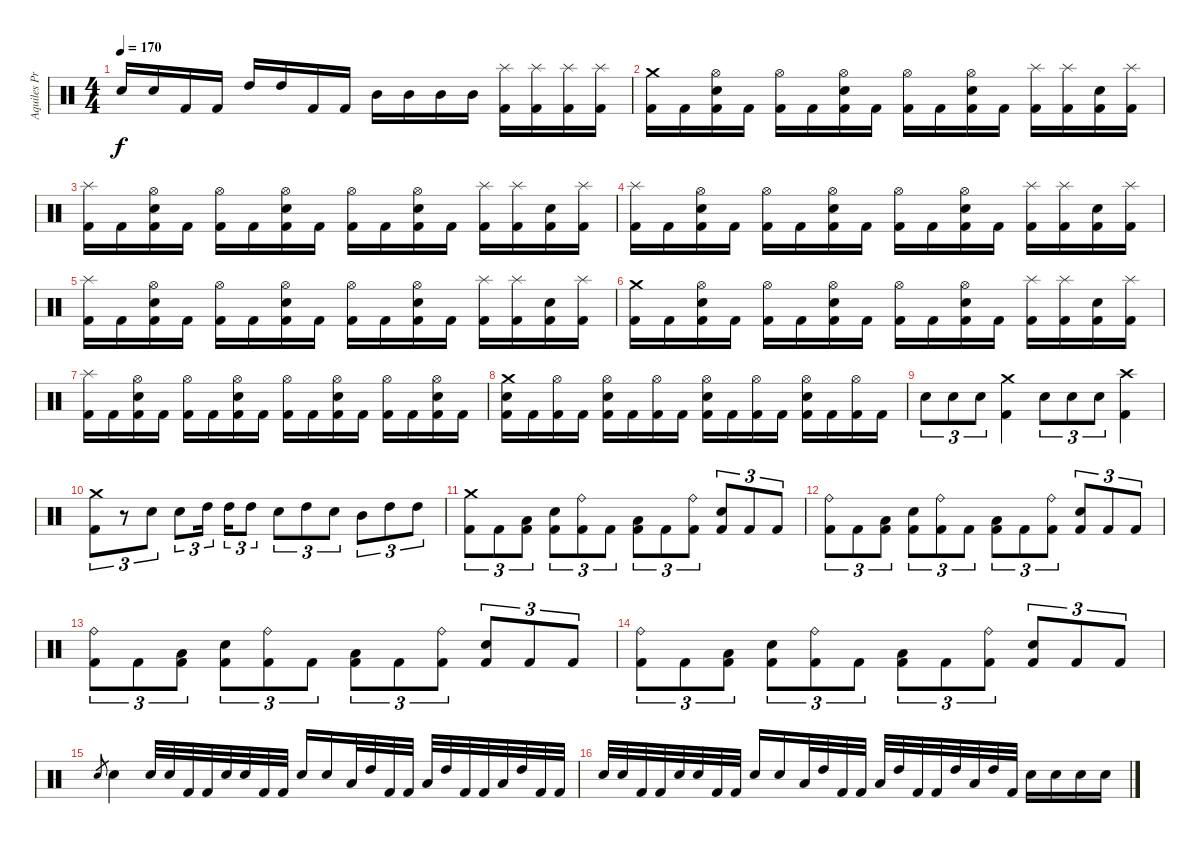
\track ("Aquiles Priester" "Aquiles Pr") {instrument percussion}
\staff {score}
\articulation defaults
\ts (4 4)
\tempo 170
\clef neutral
\ks c "Electric Snare (hit)".16{dy f} "Electric Snare (hit)".16 "Kick (hit) 2".16 "Kick (hit) 2".16 "High Tom (hit)".16 "High Tom (hit)".16 "Kick (hit) 2".16 "Kick (hit) 2".16 "Mid Tom (hit)".16 "Mid Tom (hit)".16 "Mid Tom (hit)".16 "Mid Tom (hit)".16
("Splash (hit)" "Kick (hit) 2").16 ("Splash (hit)" "Kick (hit) 2").16 ("Splash (hit)" "Kick (hit) 2").16 ("Splash (hit)" "Kick (hit) 2").16 |
("Crash medium (hit)" "Kick (hit) 2").16 "Kick (hit) 2".16 ("Electric Snare (hit)" "Hi-Hat (open)" "Kick (hit) 2").16 "Kick (hit) 2".16 ("Hi-Hat (open)" "Kick (hit) 2").16 "Kick (hit) 2".16 ("Electric Snare (hit)" "Hi-Hat (open)" "Kick (hit) 2").16 "Kick (hit) 2".16 ("Hi-Hat (open)" "Kick (hit) 2").16 "Kick (hit) 2".16 ("Electric Snare (hit)" "Hi-Hat (open)" "Kick (hit) 2").16 "Kick (hit) 2".16 ("Splash (hit)" "Kick (hit) 2").16 ("Splash (hit)" "Kick (hit) 2").16 ("Electric Snare (hit)" "Kick (hit) 2").16 ("Splash (hit)" "Kick (hit) 2").16 |
("Splash (hit)" "Kick (hit) 2").16 "Kick (hit) 2".16 ("Electric Snare (hit)" "Hi-Hat (open)" "Kick (hit) 2").16 "Kick (hit) 2".16 ("Hi-Hat (open)" "Kick (hit) 2").16 "Kick (hit) 2".16 ("Electric Snare (hit)" "Hi-Hat (open)" "Kick (hit) 2").16 "Kick (hit) 2".16 ("Hi-Hat (open)" "Kick (hit) 2").16 "Kick (hit) 2".16 ("Electric Snare (hit)" "Hi-Hat (open)" "Kick (hit) 2").16 "Kick (hit) 2".16 ("Splash (hit)" "Kick (hit) 2").16 ("Splash (hit)" "Kick (hit) 2").16 ("Electric Snare (hit)" "Kick (hit) 2").16 ("Splash (hit)" "Kick (hit) 2").16 |
("Splash (hit)" "Kick (hit) 2").16 "Kick (hit) 2".16 ("Electric Snare (hit)" "Hi-Hat (open)" "Kick (hit) 2").16 "Kick (hit) 2".16 ("Hi-Hat (open)" "Kick (hit) 2").16 "Kick (hit) 2".16 ("Electric Snare (hit)" "Hi-Hat (open)" "Kick (hit) 2").16 "Kick (hit) 2".16 ("Hi-Hat (open)" "Kick (hit) 2").16 "Kick (hit) 2".16 ("Electric Snare (hit)" "Hi-Hat (open)" "Kick (hit) 2").16 "Kick (hit) 2".16 ("Splash (hit)" "Kick (hit) 2").16 ("Splash (hit)" "Kick (hit) 2").16 ("Electric Snare (hit)" "Kick (hit) 2").16 ("Splash (hit)" "Kick (hit) 2").16 |
("Splash (hit)" "Kick (hit) 2").16 "Kick (hit) 2".16 ("Electric Snare (hit)" "Hi-Hat (open)" "Kick (hit) 2").16 "Kick (hit) 2".16 ("Hi-Hat (open)" "Kick (hit) 2").16 "Kick (hit) 2".16 ("Electric Snare (hit)" "Hi-Hat (open)" "Kick (hit) 2").16 "Kick (hit) 2".16 ("Hi-Hat (open)" "Kick (hit) 2").16 "Kick (hit) 2".16 ("Electric Snare (hit)" "Hi-Hat (open)" "Kick (hit) 2").16 "Kick (hit) 2".16 ("Splash (hit)" "Kick (hit) 2").16 ("Splash (hit)" "Kick (hit) 2").16 ("Electric Snare (hit)" "Kick (hit) 2").16 ("Splash (hit)" "Kick (hit) 2").16 |
("Crash medium (hit)" "Kick (hit) 2").16 "Kick (hit) 2".16 ("Electric Snare (hit)" "Hi-Hat (open)" "Kick (hit) 2").16 "Kick (hit) 2".16 ("Hi-Hat (open)" "Kick (hit) 2").16 "Kick (hit) 2".16 ("Electric Snare (hit)" "Hi-Hat (open)" "Kick (hit) 2").16 "Kick (hit) 2".16 ("Hi-Hat (open)" "Kick (hit) 2").16 "Kick (hit) 2".16 ("Electric Snare (hit)" "Hi-Hat (open)" "Kick (hit) 2").16 "Kick (hit) 2".16 ("Splash (hit)" "Kick (hit) 2").16 ("Splash (hit)" "Kick (hit) 2").16 ("Electric Snare (hit)" "Kick (hit) 2").16 ("Splash (hit)" "Kick (hit) 2").16 |
("Splash (hit)" "Kick (hit) 2").16 "Kick (hit) 2".16 ("Electric Snare (hit)" "Hi-Hat (open)" "Kick (hit) 2").16 "Kick (hit) 2".16 ("Hi-Hat (open)" "Kick (hit) 2").16 "Kick (hit) 2".16 ("Electric Snare (hit)" "Hi-Hat (open)" "Kick (hit) 2").16 "Kick (hit) 2".16 ("Hi-Hat (open)" "Kick (hit) 2").16 "Kick (hit) 2".16 ("Electric Snare (hit)" "Hi-Hat (open)" "Kick (hit) 2").16 "Kick (hit) 2".16 ("Hi-Hat (open)" "Kick (hit) 2").16 "Kick (hit) 2".16 ("Hi-Hat (open)" "Electric Snare (hit)" "Kick (hit) 2").16 "Kick (hit) 2".16 |
("Crash medium (hit)" "Electric Snare (hit)" "Kick (hit) 2").16 "Kick (hit) 2".16 ("Hi-Hat (open)" "Kick (hit) 2").16 "Kick (hit) 2".16 ("Hi-Hat (open)" "Electric Snare (hit)" "Kick (hit) 2").16 "Kick (hit) 2".16 ("Hi-Hat (open)" "Kick (hit) 2").16 "Kick (hit) 2".16 ("Hi-Hat (open)" "Electric Snare (hit)" "Kick (hit) 2").16 "Kick (hit) 2".16 ("Hi-Hat (open)" "Kick (hit) 2").16 "Kick (hit) 2".16 ("Hi-Hat (open)" "Electric Snare (hit)" "Kick (hit) 2").16 "Kick (hit) 2".16 ("Hi-Hat (open)" "Kick (hit) 2").16 "Kick (hit) 2".16 |
"Electric Snare (hit)".8{tu (3 2)} "Electric Snare (hit)".8{tu (3 2)} "Electric Snare (hit)".8{tu (3 2)} ("Crash medium (hit)" "Kick (hit) 2").4 "Electric Snare (hit)".8{tu (3 2)} "Electric Snare (hit)".8{tu (3 2)} "Electric Snare (hit)".8{tu (3 2)} ("Crash high (hit)" "Kick (hit) 2").4 |
("Kick (hit) 2" "Crash medium (hit)").8{tu (3 2)} r.8{tu (3 2)} "Electric Snare (hit)".8{tu (3 2)} "Electric Snare (hit)".8{tu (3 2)} "High Tom (hit)".16{tu (3 2)} "High Tom (hit)".16{tu (3 2)} "High Tom (hit)".8{tu (3 2)} "Electric Snare (hit)".8{tu (3 2)} "High Tom (hit)".8{tu (3 2)} "Electric Snare (hit)".8{tu (3 2)} "Mid Tom (hit)".8{tu (3 2)} "High Tom (hit)".8{tu (3 2)} "High Tom (hit)".8{tu (3 2)} |
("Crash medium (hit)" "Kick (hit) 2").8{tu (3 2)} "Kick (hit) 2".8{tu (3 2)} ("Low Tom (hit)" "Kick (hit) 2").8{tu (3 2)} ("Electric Snare (hit)" "Kick (hit) 2").8{tu (3 2)} ("Ride (bell)" "Kick (hit) 2").8{tu (3 2)} "Kick (hit) 2".8{tu (3 2)} ("Low Tom (hit)" "Kick (hit) 2").8{tu (3 2)} "Kick (hit) 2".8{tu (3 2)} ("Ride (bell)" "Kick (hit) 2").8{tu (3 2)} ("Electric Snare (hit)" "Kick (hit) 2").8{tu (3 2)} "Kick (hit) 2".8{tu (3 2)} "Kick (hit) 2".8{tu (3 2)} |
("Ride (bell)" "Kick (hit) 2").8{tu (3 2)} "Kick (hit) 2".8{tu (3 2)} ("Low Tom (hit)" "Kick (hit) 2").8{tu (3 2)} ("Electric Snare (hit)" "Kick (hit) 2").8{tu (3 2)} ("Ride (bell)" "Kick (hit) 2").8{tu (3 2)} "Kick (hit) 2".8{tu (3 2)} ("Low Tom (hit)" "Kick (hit) 2").8{tu (3 2)} "Kick (hit) 2".8{tu (3 2)} ("Ride (bell)" "Kick (hit) 2").8{tu (3 2)} ("Electric Snare (hit)" "Kick (hit) 2").8{tu (3 2)} "Kick (hit) 2".8{tu (3 2)} "Kick (hit) 2".8{tu (3 2)} |
("Ride (bell)" "Kick (hit) 2").8{tu (3 2)} "Kick (hit) 2".8{tu (3 2)} ("Low Tom (hit)" "Kick (hit) 2").8{tu (3 2)} ("Electric Snare (hit)" "Kick (hit) 2").8{tu (3 2)} ("Ride (bell)" "Kick (hit) 2").8{tu (3 2)} "Kick (hit) 2".8{tu (3 2)} ("Low Tom (hit)" "Kick (hit) 2").8{tu (3 2)} "Kick (hit) 2".8{tu (3 2)} ("Ride (bell)" "Kick (hit) 2").8{tu (3 2)} ("Electric Snare (hit)" "Kick (hit) 2").8{tu (3 2)} "Kick (hit) 2".8{tu (3 2)} "Kick (hit) 2".8{tu (3 2)} |
("Ride (bell)" "Kick (hit) 2").8{tu (3 2)} "Kick (hit) 2".8{tu (3 2)} ("Low Tom (hit)" "Kick (hit) 2").8{tu (3 2)} ("Electric Snare (hit)" "Kick (hit) 2").8{tu (3 2)} ("Ride (bell)" "Kick (hit) 2").8{tu (3 2)} "Kick (hit) 2".8{tu (3 2)} ("Low Tom (hit)" "Kick (hit) 2").8{tu (3 2)} "Kick (hit) 2".8{tu (3 2)} ("Ride (bell)" "Kick (hit) 2").8{tu (3 2)} ("Electric Snare (hit)" "Kick (hit) 2").8{tu (3 2)} "Kick (hit) 2".8{tu (3 2)} "Kick (hit) 2".8{tu (3 2)} |
"Electric Snare (hit)".8{gr} "Electric Snare (hit)".4 "Electric Snare (hit)".32 "Electric Snare (hit)".32 "Kick (hit) 2".32 "Kick (hit) 2".32 "Electric Snare (hit)".32 "Electric Snare (hit)".32 "Kick (hit) 2".32 "Kick (hit) 2".32 "Electric Snare (hit)".16 "Electric Snare (hit)".16 "Low Tom (hit)".32 "High Tom (hit)".32 "Kick (hit) 2".32 "Kick (hit) 2".32 "Low Tom (hit)".32 "High Tom (hit)".32 "Kick (hit) 2".32 "Kick (hit) 2".32 "Low Tom (hit)".32 "High Tom (hit)".32 "Kick (hit) 2".32 "Kick (hit) 2".32 |
"Electric Snare (hit)".32 "Electric Snare (hit)".32 "Kick (hit) 2".32 "Kick (hit) 2".32 "Electric Snare (hit)".32 "Electric Snare (hit)".32 "Kick (hit) 2".32 "Kick (hit) 2".32 "Electric Snare (hit)".16 "Electric Snare (hit)".16 "Low Tom (hit)".32 "High Tom (hit)".32 "Kick (hit) 2".32 "Kick (hit) 2".32 "Low Tom (hit)".32 "High Tom (hit)".32 "Kick (hit) 2".32 "Kick (hit) 2".32 "High Tom (hit)".32 "Low Tom (hit)".32 "High Tom (hit)".32 "Kick (hit) 2".32 "Electric Snare (hit)".16 "Electric Snare (hit)".16 "Electric Snare (hit)".16 "Electric Snare (hit)".16
